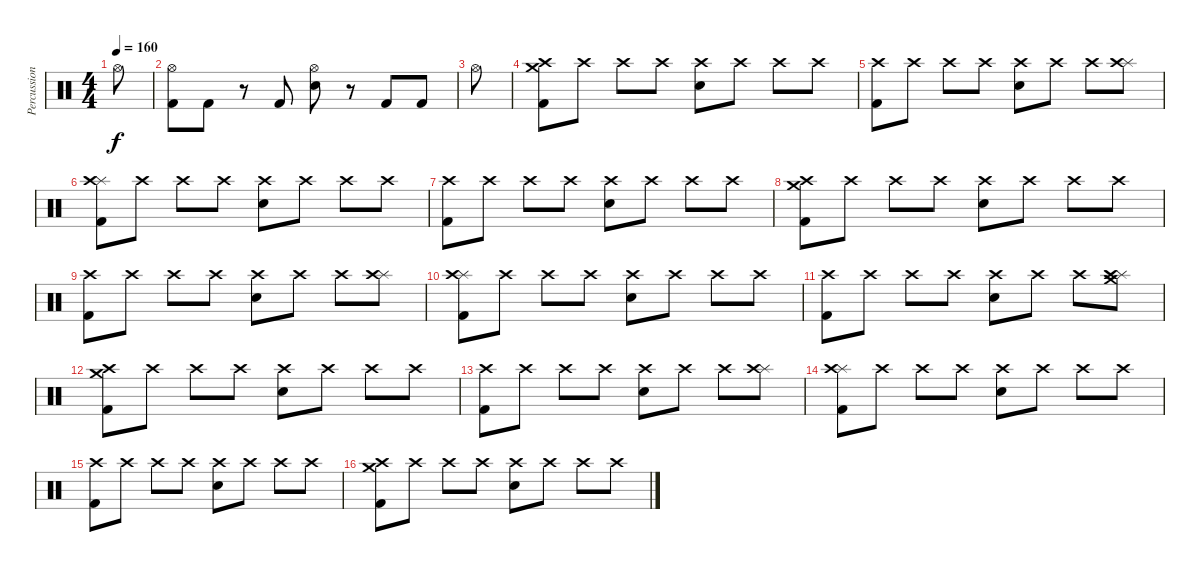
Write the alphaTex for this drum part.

\track ("Percussion" "Percussion") {instrument percussion}
\staff {score}
\articulation defaults
\ts (4 4)
\tempo 160
\clef neutral
\ks c "Hi-Hat (open)".8{dy f}
|
("Kick (hit) 2" "Hi-Hat (open)").8 "Kick (hit) 2".8 r.8 "Kick (hit) 2".8 ("Snare (hit) 2" "Hi-Hat (open)").8 r.8 "Kick (hit) 2".8 "Kick (hit) 2".8 |
"Hi-Hat (open)".8 |
("Crash medium (hit)" "Kick (hit) 2" "Crash high (hit)").8 "Crash high (hit)".8 "Crash high (hit)".8 "Crash high (hit)".8 ("Electric Snare (hit)" "Crash high (hit)").8 "Crash high (hit)".8 "Crash high (hit)".8 "Crash high (hit)".8 |
("Kick (hit) 2" "Crash high (hit)").8 "Crash high (hit)".8 "Crash high (hit)".8 "Crash high (hit)".8 ("Electric Snare (hit)" "Crash high (hit)").8 "Crash high (hit)".8 "Crash high (hit)".8 ("Splash (hit)" "Crash high (hit)").8 |
("Splash (hit)" "Kick (hit) 2" "Crash high (hit)").8 "Crash high (hit)".8 "Crash high (hit)".8 "Crash high (hit)".8 ("Electric Snare (hit)" "Crash high (hit)").8 "Crash high (hit)".8 "Crash high (hit)".8 "Crash high (hit)".8 |
("Kick (hit) 2" "Crash high (hit)").8 "Crash high (hit)".8 "Crash high (hit)".8 "Crash high (hit)".8 ("Electric Snare (hit)" "Crash high (hit)").8 "Crash high (hit)".8 "Crash high (hit)".8 "Crash high (hit)".8 |
("Crash medium (hit)" "Kick (hit) 2" "Crash high (hit)").8 "Crash high (hit)".8 "Crash high (hit)".8 "Crash high (hit)".8 ("Electric Snare (hit)" "Crash high (hit)").8 "Crash high (hit)".8 "Crash high (hit)".8 "Crash high (hit)".8 |
("Kick (hit) 2" "Crash high (hit)").8 "Crash high (hit)".8 "Crash high (hit)".8 "Crash high (hit)".8 ("Electric Snare (hit)" "Crash high (hit)").8 "Crash high (hit)".8 "Crash high (hit)".8 ("Splash (hit)" "Crash high (hit)").8 |
("Splash (hit)" "Kick (hit) 2" "Crash high (hit)").8 "Crash high (hit)".8 "Crash high (hit)".8 "Crash high (hit)".8 ("Electric Snare (hit)" "Crash high (hit)").8 "Crash high (hit)".8 "Crash high (hit)".8 "Crash high (hit)".8 |
("Kick (hit) 2" "Crash high (hit)").8 "Crash high (hit)".8 "Crash high (hit)".8 "Crash high (hit)".8 ("Electric Snare (hit)" "Crash high (hit)").8 "Crash high (hit)".8 "Crash high (hit)".8 ("Splash (hit)" "Crash medium (hit)" "Crash high (hit)").8 |
("Crash medium (hit)" "Kick (hit) 2" "Crash high (hit)").8 "Crash high (hit)".8 "Crash high (hit)".8 "Crash high (hit)".8 ("Electric Snare (hit)" "Crash high (hit)").8 "Crash high (hit)".8 "Crash high (hit)".8 "Crash high (hit)".8 |
("Kick (hit) 2" "Crash high (hit)").8 "Crash high (hit)".8 "Crash high (hit)".8 "Crash high (hit)".8 ("Electric Snare (hit)" "Crash high (hit)").8 "Crash high (hit)".8 "Crash high (hit)".8 ("Splash (hit)" "Crash high (hit)").8 |
("Splash (hit)" "Kick (hit) 2" "Crash high (hit)").8 "Crash high (hit)".8 "Crash high (hit)".8 "Crash high (hit)".8 ("Electric Snare (hit)" "Crash high (hit)").8 "Crash high (hit)".8 "Crash high (hit)".8 "Crash high (hit)".8 |
("Kick (hit) 2" "Crash high (hit)").8 "Crash high (hit)".8 "Crash high (hit)".8 "Crash high (hit)".8 ("Electric Snare (hit)" "Crash high (hit)").8 "Crash high (hit)".8 "Crash high (hit)".8 "Crash high (hit)".8 |
("Crash medium (hit)" "Kick (hit) 2" "Crash high (hit)").8 "Crash high (hit)".8 "Crash high (hit)".8 "Crash high (hit)".8 ("Electric Snare (hit)" "Crash high (hit)").8 "Crash high (hit)".8 "Crash high (hit)".8 "Crash high (hit)".8
